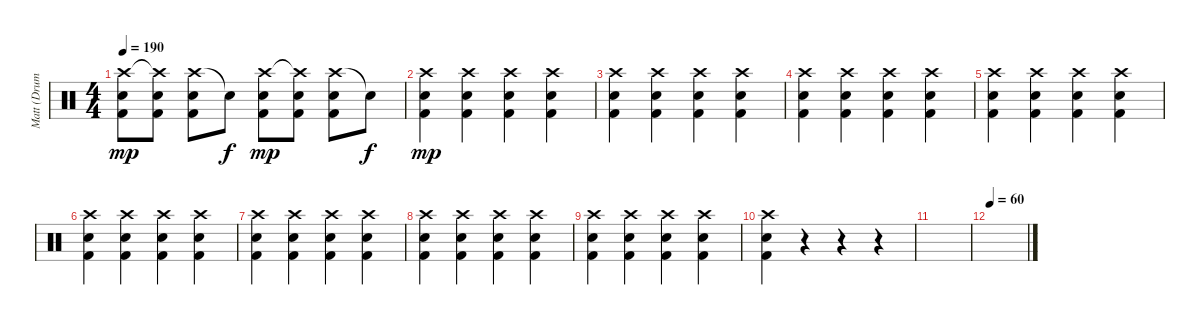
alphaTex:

\track ("Matt (Drums)" "Matt (Drum") {instrument percussion}
\staff {score}
\articulation defaults
\ts (4 4)
\tempo 190
\clef neutral
\ks c
("Crash high (hit)" "Snare (hit) 2" "Kick (hit) 2").8{dy mp} ("Crash high (hit)"{t} "Snare (hit) 2" "Kick (hit) 2").8 ("Crash high (hit)" "Snare (hit) 2" "Kick (hit) 2").8 "Snare (hit)"{t}.8{dy f} ("Crash high (hit)" "Snare (hit) 2" "Kick (hit) 2").8{dy mp} ("Crash high (hit)"{t} "Snare (hit) 2" "Kick (hit) 2").8 ("Crash high (hit)" "Snare (hit) 2" "Kick (hit) 2").8 "Snare (hit)"{t}.8{dy f} |
("Crash high (hit)" "Snare (hit) 2" "Kick (hit) 2").4{dy mp} ("Crash high (hit)" "Snare (hit) 2" "Kick (hit) 2").4 ("Crash high (hit)" "Snare (hit) 2" "Kick (hit) 2").4 ("Crash high (hit)" "Snare (hit) 2" "Kick (hit) 2").4 |
("Crash high (hit)" "Snare (hit) 2" "Kick (hit) 2").4 ("Crash high (hit)" "Snare (hit) 2" "Kick (hit) 2").4 ("Crash high (hit)" "Snare (hit) 2" "Kick (hit) 2").4 ("Crash high (hit)" "Snare (hit) 2" "Kick (hit) 2").4 |
("Crash high (hit)" "Snare (hit) 2" "Kick (hit) 2").4 ("Crash high (hit)" "Snare (hit) 2" "Kick (hit) 2").4 ("Crash high (hit)" "Snare (hit) 2" "Kick (hit) 2").4 ("Crash high (hit)" "Snare (hit) 2" "Kick (hit) 2").4 |
("Crash high (hit)" "Snare (hit) 2" "Kick (hit) 2").4 ("Crash high (hit)" "Snare (hit) 2" "Kick (hit) 2").4 ("Crash high (hit)" "Snare (hit) 2" "Kick (hit) 2").4 ("Crash high (hit)" "Snare (hit) 2" "Kick (hit) 2").4 |
("Crash high (hit)" "Snare (hit) 2" "Kick (hit) 2").4 ("Crash high (hit)" "Snare (hit) 2" "Kick (hit) 2").4 ("Crash high (hit)" "Snare (hit) 2" "Kick (hit) 2").4 ("Crash high (hit)" "Snare (hit) 2" "Kick (hit) 2").4 |
("Crash high (hit)" "Snare (hit) 2" "Kick (hit) 2").4 ("Crash high (hit)" "Snare (hit) 2" "Kick (hit) 2").4 ("Crash high (hit)" "Snare (hit) 2" "Kick (hit) 2").4 ("Crash high (hit)" "Snare (hit) 2" "Kick (hit) 2").4 |
("Crash high (hit)" "Snare (hit) 2" "Kick (hit) 2").4 ("Crash high (hit)" "Snare (hit) 2" "Kick (hit) 2").4 ("Crash high (hit)" "Snare (hit) 2" "Kick (hit) 2").4 ("Crash high (hit)" "Snare (hit) 2" "Kick (hit) 2").4 |
("Crash high (hit)" "Snare (hit) 2" "Kick (hit) 2").4 ("Crash high (hit)" "Snare (hit) 2" "Kick (hit) 2").4 ("Crash high (hit)" "Snare (hit) 2" "Kick (hit) 2").4 ("Crash high (hit)" "Snare (hit) 2" "Kick (hit) 2").4 |
("Crash high (hit)" "Snare (hit) 2" "Kick (hit) 2").4 r.4 r.4 r.4 |
|
\tempo 60
